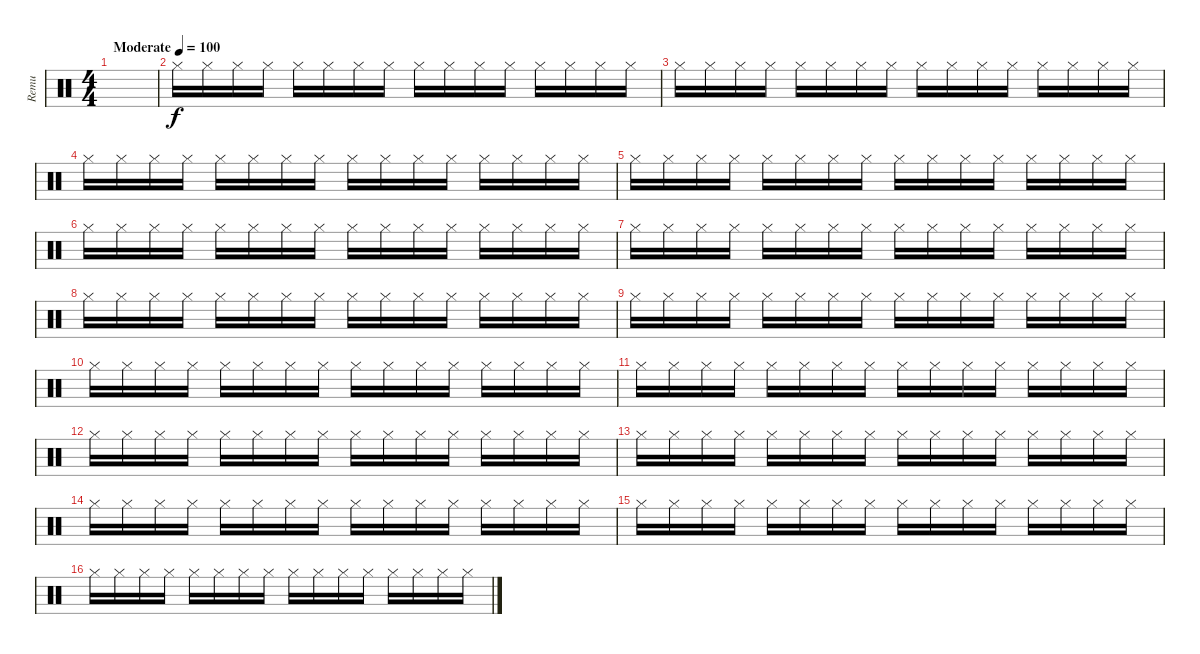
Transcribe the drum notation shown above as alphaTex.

\track ("Remu" "Remu") {instrument percussion}
\staff {score}
\articulation defaults
\ts (4 4)
\tempo (100 "Moderate")
\clef neutral
\ks c
|
"Hi-Hat (closed)".16 "Hi-Hat (closed)".16 "Hi-Hat (closed)".16 "Hi-Hat (closed)".16 "Hi-Hat (closed)".16 "Hi-Hat (closed)".16 "Hi-Hat (closed)".16 "Hi-Hat (closed)".16 "Hi-Hat (closed)".16 "Hi-Hat (closed)".16 "Hi-Hat (closed)".16 "Hi-Hat (closed)".16 "Hi-Hat (closed)".16 "Hi-Hat (closed)".16 "Hi-Hat (closed)".16 "Hi-Hat (closed)".16 |
"Hi-Hat (closed)".16 "Hi-Hat (closed)".16 "Hi-Hat (closed)".16 "Hi-Hat (closed)".16 "Hi-Hat (closed)".16 "Hi-Hat (closed)".16 "Hi-Hat (closed)".16 "Hi-Hat (closed)".16 "Hi-Hat (closed)".16 "Hi-Hat (closed)".16 "Hi-Hat (closed)".16 "Hi-Hat (closed)".16 "Hi-Hat (closed)".16 "Hi-Hat (closed)".16 "Hi-Hat (closed)".16 "Hi-Hat (closed)".16 |
"Hi-Hat (closed)".16 "Hi-Hat (closed)".16 "Hi-Hat (closed)".16 "Hi-Hat (closed)".16 "Hi-Hat (closed)".16 "Hi-Hat (closed)".16 "Hi-Hat (closed)".16 "Hi-Hat (closed)".16 "Hi-Hat (closed)".16 "Hi-Hat (closed)".16 "Hi-Hat (closed)".16 "Hi-Hat (closed)".16 "Hi-Hat (closed)".16 "Hi-Hat (closed)".16 "Hi-Hat (closed)".16 "Hi-Hat (closed)".16 |
"Hi-Hat (closed)".16 "Hi-Hat (closed)".16 "Hi-Hat (closed)".16 "Hi-Hat (closed)".16 "Hi-Hat (closed)".16 "Hi-Hat (closed)".16 "Hi-Hat (closed)".16 "Hi-Hat (closed)".16 "Hi-Hat (closed)".16 "Hi-Hat (closed)".16 "Hi-Hat (closed)".16 "Hi-Hat (closed)".16 "Hi-Hat (closed)".16 "Hi-Hat (closed)".16 "Hi-Hat (closed)".16 "Hi-Hat (closed)".16 |
"Hi-Hat (closed)".16 "Hi-Hat (closed)".16 "Hi-Hat (closed)".16 "Hi-Hat (closed)".16 "Hi-Hat (closed)".16 "Hi-Hat (closed)".16 "Hi-Hat (closed)".16 "Hi-Hat (closed)".16 "Hi-Hat (closed)".16 "Hi-Hat (closed)".16 "Hi-Hat (closed)".16 "Hi-Hat (closed)".16 "Hi-Hat (closed)".16 "Hi-Hat (closed)".16 "Hi-Hat (closed)".16 "Hi-Hat (closed)".16 |
"Hi-Hat (closed)".16 "Hi-Hat (closed)".16 "Hi-Hat (closed)".16 "Hi-Hat (closed)".16 "Hi-Hat (closed)".16 "Hi-Hat (closed)".16 "Hi-Hat (closed)".16 "Hi-Hat (closed)".16 "Hi-Hat (closed)".16 "Hi-Hat (closed)".16 "Hi-Hat (closed)".16 "Hi-Hat (closed)".16 "Hi-Hat (closed)".16 "Hi-Hat (closed)".16 "Hi-Hat (closed)".16 "Hi-Hat (closed)".16 |
"Hi-Hat (closed)".16 "Hi-Hat (closed)".16 "Hi-Hat (closed)".16 "Hi-Hat (closed)".16 "Hi-Hat (closed)".16 "Hi-Hat (closed)".16 "Hi-Hat (closed)".16 "Hi-Hat (closed)".16 "Hi-Hat (closed)".16 "Hi-Hat (closed)".16 "Hi-Hat (closed)".16 "Hi-Hat (closed)".16 "Hi-Hat (closed)".16 "Hi-Hat (closed)".16 "Hi-Hat (closed)".16 "Hi-Hat (closed)".16 |
"Hi-Hat (closed)".16 "Hi-Hat (closed)".16 "Hi-Hat (closed)".16 "Hi-Hat (closed)".16 "Hi-Hat (closed)".16 "Hi-Hat (closed)".16 "Hi-Hat (closed)".16 "Hi-Hat (closed)".16 "Hi-Hat (closed)".16 "Hi-Hat (closed)".16 "Hi-Hat (closed)".16 "Hi-Hat (closed)".16 "Hi-Hat (closed)".16 "Hi-Hat (closed)".16 "Hi-Hat (closed)".16 "Hi-Hat (closed)".16 |
"Hi-Hat (closed)".16 "Hi-Hat (closed)".16 "Hi-Hat (closed)".16 "Hi-Hat (closed)".16 "Hi-Hat (closed)".16 "Hi-Hat (closed)".16 "Hi-Hat (closed)".16 "Hi-Hat (closed)".16 "Hi-Hat (closed)".16 "Hi-Hat (closed)".16 "Hi-Hat (closed)".16 "Hi-Hat (closed)".16 "Hi-Hat (closed)".16 "Hi-Hat (closed)".16 "Hi-Hat (closed)".16 "Hi-Hat (closed)".16 |
"Hi-Hat (closed)".16 "Hi-Hat (closed)".16 "Hi-Hat (closed)".16 "Hi-Hat (closed)".16 "Hi-Hat (closed)".16 "Hi-Hat (closed)".16 "Hi-Hat (closed)".16 "Hi-Hat (closed)".16 "Hi-Hat (closed)".16 "Hi-Hat (closed)".16 "Hi-Hat (closed)".16 "Hi-Hat (closed)".16 "Hi-Hat (closed)".16 "Hi-Hat (closed)".16 "Hi-Hat (closed)".16 "Hi-Hat (closed)".16 |
"Hi-Hat (closed)".16 "Hi-Hat (closed)".16 "Hi-Hat (closed)".16 "Hi-Hat (closed)".16 "Hi-Hat (closed)".16 "Hi-Hat (closed)".16 "Hi-Hat (closed)".16 "Hi-Hat (closed)".16 "Hi-Hat (closed)".16 "Hi-Hat (closed)".16 "Hi-Hat (closed)".16 "Hi-Hat (closed)".16 "Hi-Hat (closed)".16 "Hi-Hat (closed)".16 "Hi-Hat (closed)".16 "Hi-Hat (closed)".16 |
"Hi-Hat (closed)".16 "Hi-Hat (closed)".16 "Hi-Hat (closed)".16 "Hi-Hat (closed)".16 "Hi-Hat (closed)".16 "Hi-Hat (closed)".16 "Hi-Hat (closed)".16 "Hi-Hat (closed)".16 "Hi-Hat (closed)".16 "Hi-Hat (closed)".16 "Hi-Hat (closed)".16 "Hi-Hat (closed)".16 "Hi-Hat (closed)".16 "Hi-Hat (closed)".16 "Hi-Hat (closed)".16 "Hi-Hat (closed)".16 |
"Hi-Hat (closed)".16 "Hi-Hat (closed)".16 "Hi-Hat (closed)".16 "Hi-Hat (closed)".16 "Hi-Hat (closed)".16 "Hi-Hat (closed)".16 "Hi-Hat (closed)".16 "Hi-Hat (closed)".16 "Hi-Hat (closed)".16 "Hi-Hat (closed)".16 "Hi-Hat (closed)".16 "Hi-Hat (closed)".16 "Hi-Hat (closed)".16 "Hi-Hat (closed)".16 "Hi-Hat (closed)".16 "Hi-Hat (closed)".16 |
"Hi-Hat (closed)".16 "Hi-Hat (closed)".16 "Hi-Hat (closed)".16 "Hi-Hat (closed)".16 "Hi-Hat (closed)".16 "Hi-Hat (closed)".16 "Hi-Hat (closed)".16 "Hi-Hat (closed)".16 "Hi-Hat (closed)".16 "Hi-Hat (closed)".16 "Hi-Hat (closed)".16 "Hi-Hat (closed)".16 "Hi-Hat (closed)".16 "Hi-Hat (closed)".16 "Hi-Hat (closed)".16 "Hi-Hat (closed)".16 |
"Hi-Hat (closed)".16 "Hi-Hat (closed)".16 "Hi-Hat (closed)".16 "Hi-Hat (closed)".16 "Hi-Hat (closed)".16 "Hi-Hat (closed)".16 "Hi-Hat (closed)".16 "Hi-Hat (closed)".16 "Hi-Hat (closed)".16 "Hi-Hat (closed)".16 "Hi-Hat (closed)".16 "Hi-Hat (closed)".16 "Hi-Hat (closed)".16 "Hi-Hat (closed)".16 "Hi-Hat (closed)".16 "Hi-Hat (closed)".16
